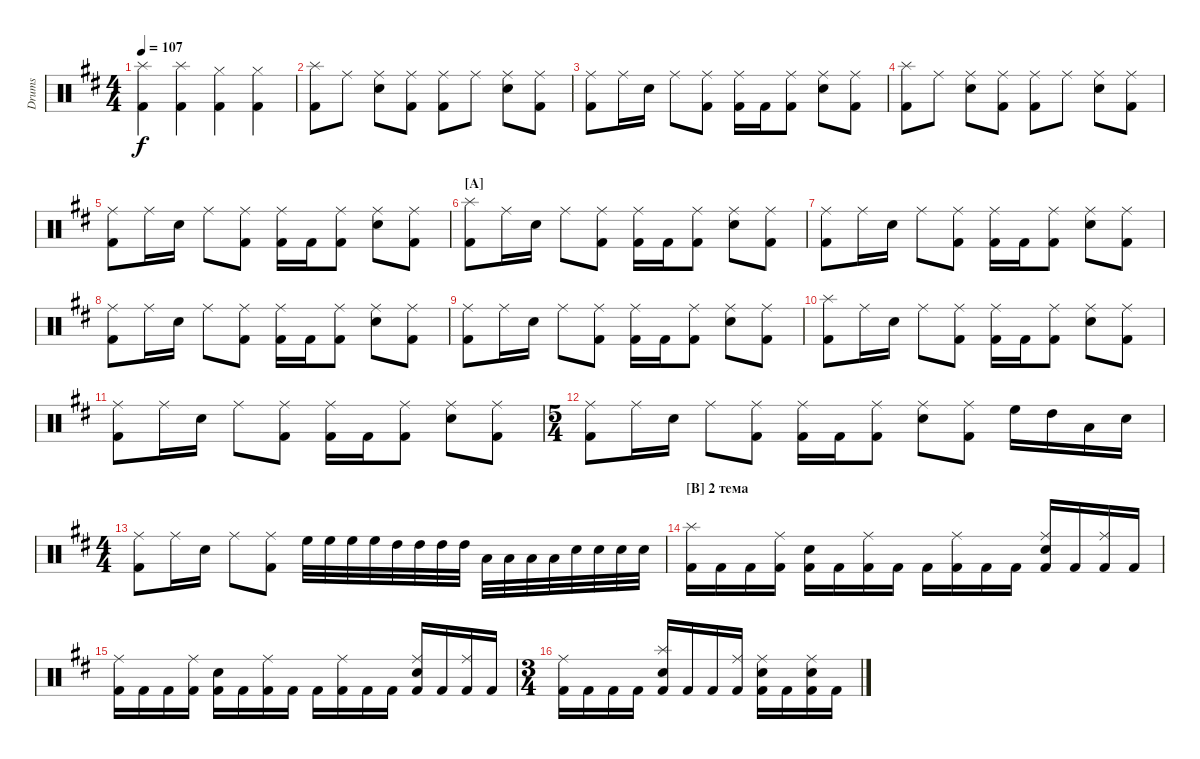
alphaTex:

\bracketExtendMode groupsimilarinstruments
\track ("Drumkit" "Drums") {multiBarRest instrument percussion}
\staff {score}
\articulation defaults
\ts (4 4)
\tempo 107
\clef neutral
\ks bminor
("Splash (hit)"{acc forcenatural} "Kick (hit) 2"{acc forcenatural}).4{dy f beam Down} ("Splash (hit)"{acc forcenatural} "Kick (hit) 2"{acc forcenatural}).4{beam Down} ("Kick (hit) 2"{acc forcenatural} "Hi-Hat (closed)"{acc forcenatural}).4{beam Down} ("Kick (hit) 2"{acc forcenatural} "Hi-Hat (closed)"{acc forcenatural}).4{beam Down} |
("Kick (hit) 2"{acc forcenatural} "Splash (hit)"{acc forcenatural}).8{beam Down} "Ride (middle)"{acc forcenatural}.8{beam Down} ("Ride (middle)"{acc forcenatural} "Snare (hit) 2"{acc forcenatural}).8{beam Down} ("Ride (middle)"{acc forcenatural} "Kick (hit) 2"{acc forcenatural}).8{beam Down} ("Kick (hit) 2"{acc forcenatural} "Ride (middle)"{acc forcenatural}).8{beam Down} "Ride (middle)"{acc forcenatural}.8{beam Down} ("Snare (hit) 2"{acc forcenatural} "Ride (middle)"{acc forcenatural}).8{beam Down} ("Ride (middle)"{acc forcenatural} "Kick (hit) 2"{acc forcenatural}).8{beam Down} |
("Kick (hit) 2"{acc forcenatural} "Ride (middle)"{acc forcenatural}).8{beam Down} "Ride (middle)"{acc forcenatural}.16{beam Down} "Snare (hit) 2"{acc forcenatural}.16{beam Down} "Ride (middle)"{acc forcenatural}.8{beam Down} ("Ride (middle)"{acc forcenatural} "Kick (hit) 2"{acc forcenatural}).8{beam Down} ("Kick (hit) 2"{acc forcenatural} "Ride (middle)"{acc forcenatural}).16{beam Down} "Kick (hit) 2"{acc forcenatural}.16{beam Down} ("Kick (hit) 2"{acc forcenatural} "Ride (middle)"{acc forcenatural}).8{beam Down} ("Snare (hit) 2"{acc forcenatural} "Ride (middle)"{acc forcenatural}).8{beam Down} ("Ride (middle)"{acc forcenatural} "Kick (hit) 2"{acc forcenatural}).8{beam Down} |
("Kick (hit) 2"{acc forcenatural} "Splash (hit)"{acc forcenatural}).8{beam Down} "Ride (middle)"{acc forcenatural}.8{beam Down} ("Ride (middle)"{acc forcenatural} "Snare (hit) 2"{acc forcenatural}).8{beam Down} ("Ride (middle)"{acc forcenatural} "Kick (hit) 2"{acc forcenatural}).8{beam Down} ("Kick (hit) 2"{acc forcenatural} "Ride (middle)"{acc forcenatural}).8{beam Down} "Ride (middle)"{acc forcenatural}.8{beam Down} ("Snare (hit) 2"{acc forcenatural} "Ride (middle)"{acc forcenatural}).8{beam Down} ("Ride (middle)"{acc forcenatural} "Kick (hit) 2"{acc forcenatural}).8{beam Down} |
("Kick (hit) 2"{acc forcenatural} "Ride (middle)"{acc forcenatural}).8{beam Down} "Ride (middle)"{acc forcenatural}.16{beam Down} "Snare (hit) 2"{acc forcenatural}.16{beam Down} "Ride (middle)"{acc forcenatural}.8{beam Down} ("Ride (middle)"{acc forcenatural} "Kick (hit) 2"{acc forcenatural}).8{beam Down} ("Kick (hit) 2"{acc forcenatural} "Ride (middle)"{acc forcenatural}).16{beam Down} "Kick (hit) 2"{acc forcenatural}.16{beam Down} ("Kick (hit) 2"{acc forcenatural} "Ride (middle)"{acc forcenatural}).8{beam Down} ("Snare (hit) 2"{acc forcenatural} "Ride (middle)"{acc forcenatural}).8{beam Down} ("Ride (middle)"{acc forcenatural} "Kick (hit) 2"{acc forcenatural}).8{beam Down} |
\section ("A" "")
("Kick (hit) 2"{acc forcenatural} "Splash (hit)"{acc forcenatural}).8{beam Down} "Ride (middle)"{acc forcenatural}.16{beam Down} "Snare (hit) 2"{acc forcenatural}.16{beam Down} "Ride (middle)"{acc forcenatural}.8{beam Down} ("Ride (middle)"{acc forcenatural} "Kick (hit) 2"{acc forcenatural}).8{beam Down} ("Kick (hit) 2"{acc forcenatural} "Ride (middle)"{acc forcenatural}).16{beam Down} "Kick (hit) 2"{acc forcenatural}.16{beam Down} ("Kick (hit) 2"{acc forcenatural} "Ride (middle)"{acc forcenatural}).8{beam Down} ("Snare (hit) 2"{acc forcenatural} "Ride (middle)"{acc forcenatural}).8{beam Down} ("Ride (middle)"{acc forcenatural} "Kick (hit) 2"{acc forcenatural}).8{beam Down} |
("Kick (hit) 2"{acc forcenatural} "Ride (middle)"{acc forcenatural}).8{beam Down} "Ride (middle)"{acc forcenatural}.16{beam Down} "Snare (hit) 2"{acc forcenatural}.16{beam Down} "Ride (middle)"{acc forcenatural}.8{beam Down} ("Ride (middle)"{acc forcenatural} "Kick (hit) 2"{acc forcenatural}).8{beam Down} ("Kick (hit) 2"{acc forcenatural} "Ride (middle)"{acc forcenatural}).16{beam Down} "Kick (hit) 2"{acc forcenatural}.16{beam Down} ("Kick (hit) 2"{acc forcenatural} "Ride (middle)"{acc forcenatural}).8{beam Down} ("Snare (hit) 2"{acc forcenatural} "Ride (middle)"{acc forcenatural}).8{beam Down} ("Ride (middle)"{acc forcenatural} "Kick (hit) 2"{acc forcenatural}).8{beam Down} |
("Kick (hit) 2"{acc forcenatural} "Ride (middle)"{acc forcenatural}).8{beam Down} "Ride (middle)"{acc forcenatural}.16{beam Down} "Snare (hit) 2"{acc forcenatural}.16{beam Down} "Ride (middle)"{acc forcenatural}.8{beam Down} ("Ride (middle)"{acc forcenatural} "Kick (hit) 2"{acc forcenatural}).8{beam Down} ("Kick (hit) 2"{acc forcenatural} "Ride (middle)"{acc forcenatural}).16{beam Down} "Kick (hit) 2"{acc forcenatural}.16{beam Down} ("Kick (hit) 2"{acc forcenatural} "Ride (middle)"{acc forcenatural}).8{beam Down} ("Snare (hit) 2"{acc forcenatural} "Ride (middle)"{acc forcenatural}).8{beam Down} ("Ride (middle)"{acc forcenatural} "Kick (hit) 2"{acc forcenatural}).8{beam Down} |
("Kick (hit) 2"{acc forcenatural} "Ride (middle)"{acc forcenatural}).8{beam Down} "Ride (middle)"{acc forcenatural}.16{beam Down} "Snare (hit) 2"{acc forcenatural}.16{beam Down} "Ride (middle)"{acc forcenatural}.8{beam Down} ("Ride (middle)"{acc forcenatural} "Kick (hit) 2"{acc forcenatural}).8{beam Down} ("Kick (hit) 2"{acc forcenatural} "Ride (middle)"{acc forcenatural}).16{beam Down} "Kick (hit) 2"{acc forcenatural}.16{beam Down} ("Kick (hit) 2"{acc forcenatural} "Ride (middle)"{acc forcenatural}).8{beam Down} ("Snare (hit) 2"{acc forcenatural} "Ride (middle)"{acc forcenatural}).8{beam Down} ("Ride (middle)"{acc forcenatural} "Kick (hit) 2"{acc forcenatural}).8{beam Down} |
("Kick (hit) 2"{acc forcenatural} "Splash (hit)"{acc forcenatural}).8{beam Down} "Ride (middle)"{acc forcenatural}.16{beam Down} "Snare (hit) 2"{acc forcenatural}.16{beam Down} "Ride (middle)"{acc forcenatural}.8{beam Down} ("Ride (middle)"{acc forcenatural} "Kick (hit) 2"{acc forcenatural}).8{beam Down} ("Kick (hit) 2"{acc forcenatural} "Ride (middle)"{acc forcenatural}).16{beam Down} "Kick (hit) 2"{acc forcenatural}.16{beam Down} ("Kick (hit) 2"{acc forcenatural} "Ride (middle)"{acc forcenatural}).8{beam Down} ("Snare (hit) 2"{acc forcenatural} "Ride (middle)"{acc forcenatural}).8{beam Down} ("Ride (middle)"{acc forcenatural} "Kick (hit) 2"{acc forcenatural}).8{beam Down} |
("Kick (hit) 2"{acc forcenatural} "Ride (middle)"{acc forcenatural}).8{beam Down} "Ride (middle)"{acc forcenatural}.16{beam Down} "Snare (hit) 2"{acc forcenatural}.16{beam Down} "Ride (middle)"{acc forcenatural}.8{beam Down} ("Ride (middle)"{acc forcenatural} "Kick (hit) 2"{acc forcenatural}).8{beam Down} ("Kick (hit) 2"{acc forcenatural} "Ride (middle)"{acc forcenatural}).16{beam Down} "Kick (hit) 2"{acc forcenatural}.16{beam Down} ("Kick (hit) 2"{acc forcenatural} "Ride (middle)"{acc forcenatural}).8{beam Down} ("Snare (hit) 2"{acc forcenatural} "Ride (middle)"{acc forcenatural}).8{beam Down} ("Ride (middle)"{acc forcenatural} "Kick (hit) 2"{acc forcenatural}).8{beam Down} |
\ts (5 4)
("Kick (hit) 2"{acc forcenatural} "Ride (middle)"{acc forcenatural}).8{beam Down} "Ride (middle)"{acc forcenatural}.16{beam Down} "Snare (hit) 2"{acc forcenatural}.16{beam Down} "Ride (middle)"{acc forcenatural}.8{beam Down} ("Ride (middle)"{acc forcenatural} "Kick (hit) 2"{acc forcenatural}).8{beam Down} ("Kick (hit) 2"{acc forcenatural} "Ride (middle)"{acc forcenatural}).16{beam Down} "Kick (hit) 2"{acc forcenatural}.16{beam Down} ("Kick (hit) 2"{acc forcenatural} "Ride (middle)"{acc forcenatural}).8{beam Down} ("Snare (hit) 2"{acc forcenatural} "Ride (middle)"{acc forcenatural}).8{beam Down} ("Ride (middle)"{acc forcenatural} "Kick (hit) 2"{acc forcenatural}).8{beam Down} "High Floor Tom (hit)"{acc forcenatural}.16{beam Down} "High Tom (hit)"{acc forcenatural}.16{beam Down} "Low Tom (hit)"{acc forcenatural}.16{beam Down} "Snare (hit) 2"{acc forcenatural}.16{beam Down} |
\ts (4 4)
("Kick (hit) 2"{acc forcenatural} "Ride (middle)"{acc forcenatural}).8{beam Down} "Ride (middle)"{acc forcenatural}.16{beam Down} "Snare (hit) 2"{acc forcenatural}.16{beam Down} "Ride (middle)"{acc forcenatural}.8{beam Down} ("Ride (middle)"{acc forcenatural} "Kick (hit) 2"{acc forcenatural}).8{beam Down} "High Floor Tom (hit)"{acc forcenatural}.32{beam Down} "High Floor Tom (hit)"{acc forcenatural}.32{beam Down} "High Floor Tom (hit)"{acc forcenatural}.32{beam Down} "High Floor Tom (hit)"{acc forcenatural}.32{beam Down} "High Tom (hit)"{acc forcenatural}.32{beam Down} "High Tom (hit)"{acc forcenatural}.32{beam Down} "High Tom (hit)"{acc forcenatural}.32{beam Down} "High Tom (hit)"{acc forcenatural}.32{beam Down} "Low Tom (hit)"{acc forcenatural}.32{beam Down} "Low Tom (hit)"{acc forcenatural}.32{beam Down} "Low Tom (hit)"{acc forcenatural}.32{beam Down} "Low Tom (hit)"{acc forcenatural}.32{beam Down} "Snare (hit) 2"{acc forcenatural}.32{beam Down} "Snare (hit) 2"{acc forcenatural}.32{beam Down} "Snare (hit) 2"{acc forcenatural}.32{beam Down} "Snare (hit) 2"{acc forcenatural}.32{beam Down} |
\section ("B" "2 тема")
("Kick (hit) 2"{acc forcenatural} "Splash (hit)"{acc forcenatural}).16{beam Down} "Kick (hit) 2"{acc forcenatural}.16{beam Down} "Kick (hit) 2"{acc forcenatural}.16{beam Down} ("Kick (hit) 2"{acc forcenatural} "Ride (middle)"{acc forcenatural}).16{beam Down} ("Kick (hit) 2"{acc forcenatural} "Snare (hit) 2"{acc forcenatural}).16{beam Down} "Kick (hit) 2"{acc forcenatural}.16{beam Down} ("Kick (hit) 2"{acc forcenatural} "Ride (middle)"{acc forcenatural}).16{beam Down} "Kick (hit) 2"{acc forcenatural}.16{beam Down} "Kick (hit) 2"{acc forcenatural}.16{beam Down} ("Kick (hit) 2"{acc forcenatural} "Ride (middle)"{acc forcenatural}).16{beam Down} "Kick (hit) 2"{acc forcenatural}.16{beam Down} "Kick (hit) 2"{acc forcenatural}.16{beam Down} ("Kick (hit) 2"{acc forcenatural} "Ride (middle)"{acc forcenatural} "Snare (hit) 2"{acc forcenatural}).16{beam Up} "Kick (hit) 2"{acc forcenatural}.16{beam Up} ("Kick (hit) 2"{acc forcenatural} "Ride (middle)"{acc forcenatural}).16{beam Up} "Kick (hit) 2"{acc forcenatural}.16{beam Up} |
("Kick (hit) 2"{acc forcenatural} "Ride (middle)"{acc forcenatural}).16{beam Down} "Kick (hit) 2"{acc forcenatural}.16{beam Down} "Kick (hit) 2"{acc forcenatural}.16{beam Down} ("Kick (hit) 2"{acc forcenatural} "Ride (middle)"{acc forcenatural}).16{beam Down} ("Kick (hit) 2"{acc forcenatural} "Snare (hit) 2"{acc forcenatural}).16{beam Down} "Kick (hit) 2"{acc forcenatural}.16{beam Down} ("Kick (hit) 2"{acc forcenatural} "Ride (middle)"{acc forcenatural}).16{beam Down} "Kick (hit) 2"{acc forcenatural}.16{beam Down} "Kick (hit) 2"{acc forcenatural}.16{beam Down} ("Kick (hit) 2"{acc forcenatural} "Ride (middle)"{acc forcenatural}).16{beam Down} "Kick (hit) 2"{acc forcenatural}.16{beam Down} "Kick (hit) 2"{acc forcenatural}.16{beam Down} ("Kick (hit) 2"{acc forcenatural} "Ride (middle)"{acc forcenatural} "Snare (hit) 2"{acc forcenatural}).16{beam Up} "Kick (hit) 2"{acc forcenatural}.16{beam Up} ("Kick (hit) 2"{acc forcenatural} "Ride (middle)"{acc forcenatural}).16{beam Up} "Kick (hit) 2"{acc forcenatural}.16{beam Up} |
\ts (3 4)
("Kick (hit) 2"{acc forcenatural} "Ride (middle)"{acc forcenatural}).16{beam Down} "Kick (hit) 2"{acc forcenatural}.16{beam Down} "Kick (hit) 2"{acc forcenatural}.16{beam Down} "Kick (hit) 2"{acc forcenatural}.16{beam Down} ("Kick (hit) 2"{acc forcenatural} "Splash (hit)"{acc forcenatural} "Snare (hit) 2"{acc forcenatural}).16{beam Up} "Kick (hit) 2"{acc forcenatural}.16{beam Up} "Kick (hit) 2"{acc forcenatural}.16{beam Up} ("Kick (hit) 2"{acc forcenatural} "Ride (middle)"{acc forcenatural}).16{beam Up} ("Kick (hit) 2"{acc forcenatural} "Ride (middle)"{acc forcenatural} "Snare (hit) 2"{acc forcenatural}).16{beam Down} "Kick (hit) 2"{acc forcenatural}.16{beam Down} ("Kick (hit) 2"{acc forcenatural} "Ride (middle)"{acc forcenatural} "Snare (hit) 2"{acc forcenatural}).16{beam Down} "Kick (hit) 2"{acc forcenatural}.16{beam Down}
